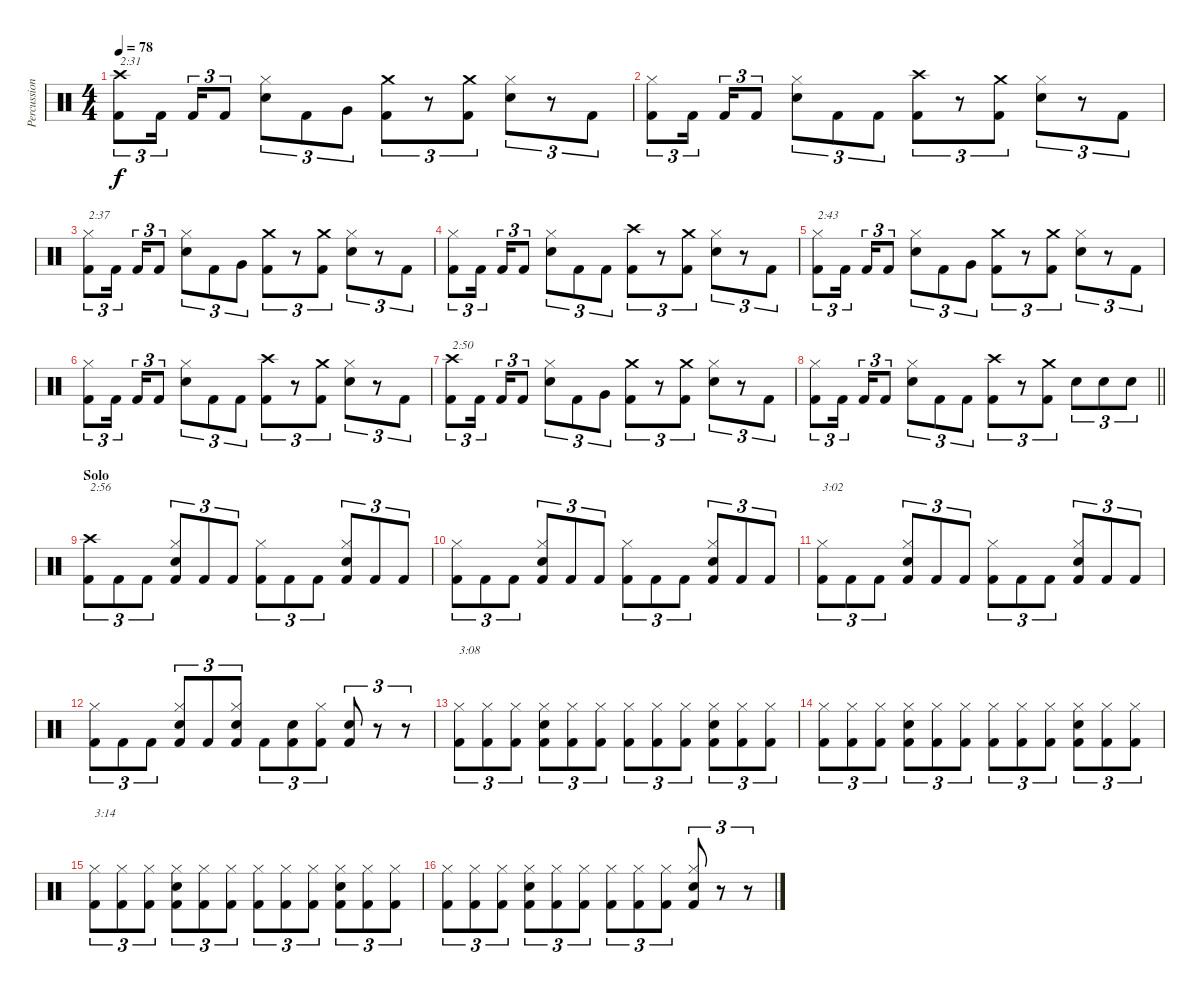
\track ("Percussion" "Percussion") {instrument percussion}
\staff {score}
\articulation defaults
\ts (4 4)
\tempo 78
\clef neutral
\ks c
("Crash high (hit)" "Kick (hit) 2").8{tu (3 2) txt "2:31" dy f} "Kick (hit) 2".16{tu (3 2)} "Kick (hit) 2".16{tu (3 2)} "Kick (hit) 2".8{tu (3 2)} ("Hi-Hat (closed)" "Electric Snare (hit)").8{tu (3 2)} "Kick (hit) 2".8{tu (3 2)} "Very Low Tom (hit)".8{tu (3 2)} ("Crash medium (hit)" "Kick (hit) 2").8{tu (3 2)} r.8{tu (3 2)} ("Crash medium (hit)" "Kick (hit) 2").8{tu (3 2)} ("Hi-Hat (closed)" "Electric Snare (hit)").8{tu (3 2)} r.8{tu (3 2)} "Kick (hit) 2".8{tu (3 2)} |
("Hi-Hat (closed)" "Kick (hit) 2").8{tu (3 2)} "Kick (hit) 2".16{tu (3 2)} "Kick (hit) 2".16{tu (3 2)} "Kick (hit) 2".8{tu (3 2)} ("Hi-Hat (closed)" "Electric Snare (hit)").8{tu (3 2)} "Kick (hit) 2".8{tu (3 2)} "Kick (hit) 2".8{tu (3 2)} ("Crash high (hit)" "Kick (hit) 2").8{tu (3 2)} r.8{tu (3 2)} ("Crash medium (hit)" "Kick (hit) 2").8{tu (3 2)} ("Hi-Hat (closed)" "Electric Snare (hit)").8{tu (3 2)} r.8{tu (3 2)} "Kick (hit) 2".8{tu (3 2)} |
("Hi-Hat (closed)" "Kick (hit) 2").8{tu (3 2) txt "2:37"} "Kick (hit) 2".16{tu (3 2)} "Kick (hit) 2".16{tu (3 2)} "Kick (hit) 2".8{tu (3 2)} ("Hi-Hat (closed)" "Electric Snare (hit)").8{tu (3 2)} "Kick (hit) 2".8{tu (3 2)} "Very Low Tom (hit)".8{tu (3 2)} ("Crash medium (hit)" "Kick (hit) 2").8{tu (3 2)} r.8{tu (3 2)} ("Crash medium (hit)" "Kick (hit) 2").8{tu (3 2)} ("Hi-Hat (closed)" "Electric Snare (hit)").8{tu (3 2)} r.8{tu (3 2)} "Kick (hit) 2".8{tu (3 2)} |
("Hi-Hat (closed)" "Kick (hit) 2").8{tu (3 2)} "Kick (hit) 2".16{tu (3 2)} "Kick (hit) 2".16{tu (3 2)} "Kick (hit) 2".8{tu (3 2)} ("Hi-Hat (closed)" "Electric Snare (hit)").8{tu (3 2)} "Kick (hit) 2".8{tu (3 2)} "Kick (hit) 2".8{tu (3 2)} ("Crash high (hit)" "Kick (hit) 2").8{tu (3 2)} r.8{tu (3 2)} ("Crash medium (hit)" "Kick (hit) 2").8{tu (3 2)} ("Hi-Hat (closed)" "Electric Snare (hit)").8{tu (3 2)} r.8{tu (3 2)} "Kick (hit) 2".8{tu (3 2)} |
("Hi-Hat (closed)" "Kick (hit) 2").8{tu (3 2) txt "2:43"} "Kick (hit) 2".16{tu (3 2)} "Kick (hit) 2".16{tu (3 2)} "Kick (hit) 2".8{tu (3 2)} ("Hi-Hat (closed)" "Electric Snare (hit)").8{tu (3 2)} "Kick (hit) 2".8{tu (3 2)} "Very Low Tom (hit)".8{tu (3 2)} ("Crash medium (hit)" "Kick (hit) 2").8{tu (3 2)} r.8{tu (3 2)} ("Crash medium (hit)" "Kick (hit) 2").8{tu (3 2)} ("Hi-Hat (closed)" "Electric Snare (hit)").8{tu (3 2)} r.8{tu (3 2)} "Kick (hit) 2".8{tu (3 2)} |
("Hi-Hat (closed)" "Kick (hit) 2").8{tu (3 2)} "Kick (hit) 2".16{tu (3 2)} "Kick (hit) 2".16{tu (3 2)} "Kick (hit) 2".8{tu (3 2)} ("Hi-Hat (closed)" "Electric Snare (hit)").8{tu (3 2)} "Kick (hit) 2".8{tu (3 2)} "Kick (hit) 2".8{tu (3 2)} ("Crash high (hit)" "Kick (hit) 2").8{tu (3 2)} r.8{tu (3 2)} ("Crash medium (hit)" "Kick (hit) 2").8{tu (3 2)} ("Hi-Hat (closed)" "Electric Snare (hit)").8{tu (3 2)} r.8{tu (3 2)} "Kick (hit) 2".8{tu (3 2)} |
("Crash high (hit)" "Kick (hit) 2").8{tu (3 2) txt "2:50"} "Kick (hit) 2".16{tu (3 2)} "Kick (hit) 2".16{tu (3 2)} "Kick (hit) 2".8{tu (3 2)} ("Hi-Hat (closed)" "Electric Snare (hit)").8{tu (3 2)} "Kick (hit) 2".8{tu (3 2)} "Very Low Tom (hit)".8{tu (3 2)} ("Crash medium (hit)" "Kick (hit) 2").8{tu (3 2)} r.8{tu (3 2)} ("Crash medium (hit)" "Kick (hit) 2").8{tu (3 2)} ("Hi-Hat (closed)" "Electric Snare (hit)").8{tu (3 2)} r.8{tu (3 2)} "Kick (hit) 2".8{tu (3 2)} |
\barLineRight lightlight
("Hi-Hat (closed)" "Kick (hit) 2").8{tu (3 2)} "Kick (hit) 2".16{tu (3 2)} "Kick (hit) 2".16{tu (3 2)} "Kick (hit) 2".8{tu (3 2)} ("Hi-Hat (closed)" "Electric Snare (hit)").8{tu (3 2)} "Kick (hit) 2".8{tu (3 2)} "Kick (hit) 2".8{tu (3 2)} ("Crash high (hit)" "Kick (hit) 2").8{tu (3 2)} r.8{tu (3 2)} ("Crash medium (hit)" "Kick (hit) 2").8{tu (3 2)} "Electric Snare (hit)".8{tu (3 2)} "Electric Snare (hit)".8{tu (3 2)} "Electric Snare (hit)".8{tu (3 2)} |
\section ("" "Solo")
("Crash high (hit)" "Kick (hit) 2").8{tu (3 2) txt "2:56"} "Kick (hit) 2".8{tu (3 2)} "Kick (hit) 2".8{tu (3 2)} ("Hi-Hat (closed)" "Electric Snare (hit)" "Kick (hit) 2").8{tu (3 2)} "Kick (hit) 2".8{tu (3 2)} "Kick (hit) 2".8{tu (3 2)} ("Hi-Hat (closed)" "Kick (hit) 2").8{tu (3 2)} "Kick (hit) 2".8{tu (3 2)} "Kick (hit) 2".8{tu (3 2)} ("Hi-Hat (closed)" "Electric Snare (hit)" "Kick (hit) 2").8{tu (3 2)} "Kick (hit) 2".8{tu (3 2)} "Kick (hit) 2".8{tu (3 2)} |
("Hi-Hat (closed)" "Kick (hit) 2").8{tu (3 2)} "Kick (hit) 2".8{tu (3 2)} "Kick (hit) 2".8{tu (3 2)} ("Hi-Hat (closed)" "Electric Snare (hit)" "Kick (hit) 2").8{tu (3 2)} "Kick (hit) 2".8{tu (3 2)} "Kick (hit) 2".8{tu (3 2)} ("Hi-Hat (closed)" "Kick (hit) 2").8{tu (3 2)} "Kick (hit) 2".8{tu (3 2)} "Kick (hit) 2".8{tu (3 2)} ("Hi-Hat (closed)" "Electric Snare (hit)" "Kick (hit) 2").8{tu (3 2)} "Kick (hit) 2".8{tu (3 2)} "Kick (hit) 2".8{tu (3 2)} |
("Hi-Hat (closed)" "Kick (hit) 2").8{tu (3 2) txt "3:02"} "Kick (hit) 2".8{tu (3 2)} "Kick (hit) 2".8{tu (3 2)} ("Hi-Hat (closed)" "Electric Snare (hit)" "Kick (hit) 2").8{tu (3 2)} "Kick (hit) 2".8{tu (3 2)} "Kick (hit) 2".8{tu (3 2)} ("Hi-Hat (closed)" "Kick (hit) 2").8{tu (3 2)} "Kick (hit) 2".8{tu (3 2)} "Kick (hit) 2".8{tu (3 2)} ("Hi-Hat (closed)" "Electric Snare (hit)" "Kick (hit) 2").8{tu (3 2)} "Kick (hit) 2".8{tu (3 2)} "Kick (hit) 2".8{tu (3 2)} |
("Hi-Hat (closed)" "Kick (hit) 2").8{tu (3 2)} "Kick (hit) 2".8{tu (3 2)} "Kick (hit) 2".8{tu (3 2)} ("Hi-Hat (closed)" "Electric Snare (hit)" "Kick (hit) 2").8{tu (3 2)} "Kick (hit) 2".8{tu (3 2)} ("Hi-Hat (closed)" "Electric Snare (hit)" "Kick (hit) 2").8{tu (3 2)} "Kick (hit) 2".8{tu (3 2)} ("Electric Snare (hit)" "Kick (hit) 2").8{tu (3 2)} ("Hi-Hat (closed)" "Kick (hit) 2").8{tu (3 2)} ("Electric Snare (hit)" "Kick (hit) 2").8{tu (3 2)} r.8{tu (3 2)} r.8{tu (3 2)} |
("Hi-Hat (closed)" "Kick (hit) 2").8{tu (3 2) txt "3:08"} ("Hi-Hat (closed)" "Kick (hit) 2").8{tu (3 2)} ("Hi-Hat (closed)" "Kick (hit) 2").8{tu (3 2)} ("Hi-Hat (closed)" "Electric Snare (hit)" "Kick (hit) 2").8{tu (3 2)} ("Hi-Hat (closed)" "Kick (hit) 2").8{tu (3 2)} ("Hi-Hat (closed)" "Kick (hit) 2").8{tu (3 2)} ("Hi-Hat (closed)" "Kick (hit) 2").8{tu (3 2)} ("Hi-Hat (closed)" "Kick (hit) 2").8{tu (3 2)} ("Hi-Hat (closed)" "Kick (hit) 2").8{tu (3 2)} ("Hi-Hat (closed)" "Electric Snare (hit)" "Kick (hit) 2").8{tu (3 2)} ("Hi-Hat (closed)" "Kick (hit) 2").8{tu (3 2)} ("Hi-Hat (closed)" "Kick (hit) 2").8{tu (3 2)} |
("Hi-Hat (closed)" "Kick (hit) 2").8{tu (3 2)} ("Hi-Hat (closed)" "Kick (hit) 2").8{tu (3 2)} ("Hi-Hat (closed)" "Kick (hit) 2").8{tu (3 2)} ("Hi-Hat (closed)" "Electric Snare (hit)" "Kick (hit) 2").8{tu (3 2)} ("Hi-Hat (closed)" "Kick (hit) 2").8{tu (3 2)} ("Hi-Hat (closed)" "Kick (hit) 2").8{tu (3 2)} ("Hi-Hat (closed)" "Kick (hit) 2").8{tu (3 2)} ("Hi-Hat (closed)" "Kick (hit) 2").8{tu (3 2)} ("Hi-Hat (closed)" "Kick (hit) 2").8{tu (3 2)} ("Hi-Hat (closed)" "Electric Snare (hit)" "Kick (hit) 2").8{tu (3 2)} ("Hi-Hat (closed)" "Kick (hit) 2").8{tu (3 2)} ("Hi-Hat (closed)" "Kick (hit) 2").8{tu (3 2)} |
("Hi-Hat (closed)" "Kick (hit) 2").8{tu (3 2) txt "3:14"} ("Hi-Hat (closed)" "Kick (hit) 2").8{tu (3 2)} ("Hi-Hat (closed)" "Kick (hit) 2").8{tu (3 2)} ("Hi-Hat (closed)" "Electric Snare (hit)" "Kick (hit) 2").8{tu (3 2)} ("Hi-Hat (closed)" "Kick (hit) 2").8{tu (3 2)} ("Hi-Hat (closed)" "Kick (hit) 2").8{tu (3 2)} ("Hi-Hat (closed)" "Kick (hit) 2").8{tu (3 2)} ("Hi-Hat (closed)" "Kick (hit) 2").8{tu (3 2)} ("Hi-Hat (closed)" "Kick (hit) 2").8{tu (3 2)} ("Hi-Hat (closed)" "Electric Snare (hit)" "Kick (hit) 2").8{tu (3 2)} ("Hi-Hat (closed)" "Kick (hit) 2").8{tu (3 2)} ("Hi-Hat (closed)" "Kick (hit) 2").8{tu (3 2)} |
("Hi-Hat (closed)" "Kick (hit) 2").8{tu (3 2)} ("Hi-Hat (closed)" "Kick (hit) 2").8{tu (3 2)} ("Hi-Hat (closed)" "Kick (hit) 2").8{tu (3 2)} ("Hi-Hat (closed)" "Electric Snare (hit)" "Kick (hit) 2").8{tu (3 2)} ("Hi-Hat (closed)" "Kick (hit) 2").8{tu (3 2)} ("Hi-Hat (closed)" "Kick (hit) 2").8{tu (3 2)} ("Hi-Hat (closed)" "Kick (hit) 2").8{tu (3 2)} ("Hi-Hat (closed)" "Kick (hit) 2").8{tu (3 2)} ("Hi-Hat (closed)" "Kick (hit) 2").8{tu (3 2)} ("Hi-Hat (closed)" "Electric Snare (hit)" "Kick (hit) 2").8{tu (3 2)} r.8{tu (3 2)} r.8{tu (3 2)}
